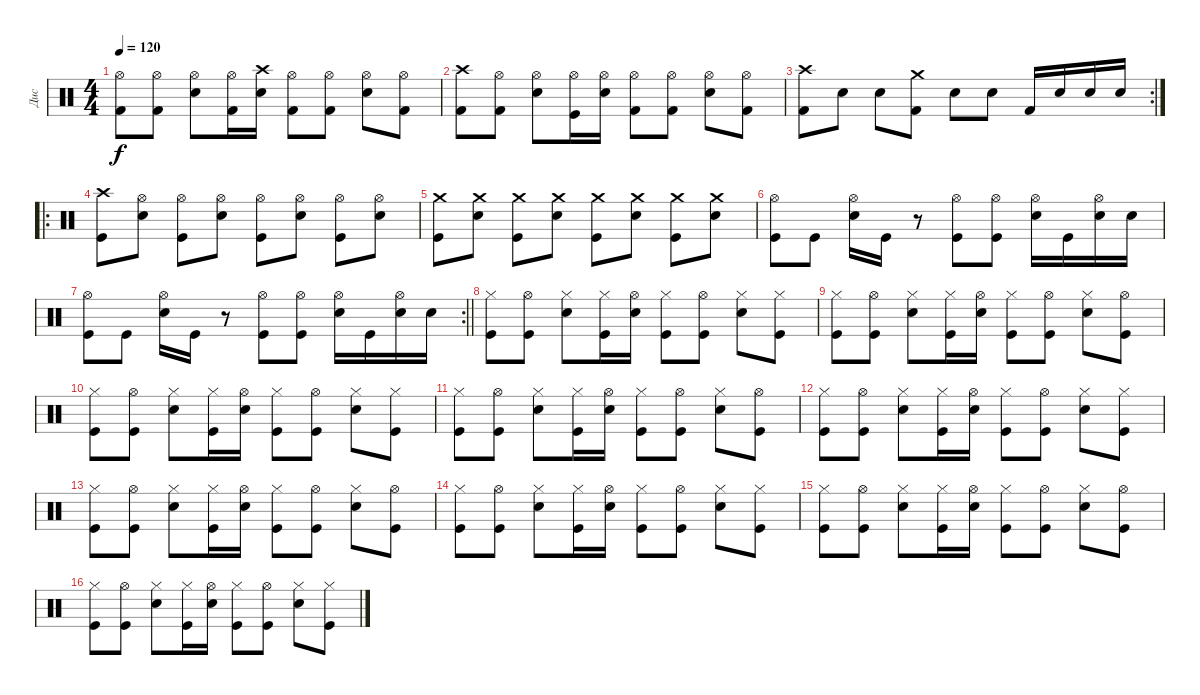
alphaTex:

\track ("Дис  " "Дис  ") {instrument percussion}
\staff {score}
\articulation defaults
\ts (4 4)
\tempo 120
\clef neutral
\ks c
("Hi-Hat (open)" "Kick (hit) 2").8{dy f} ("Hi-Hat (open)" "Kick (hit) 2").8 ("Hi-Hat (open)" "Electric Snare (hit)").8 ("Hi-Hat (open)" "Kick (hit) 2").16 ("Crash high (hit)" "Electric Snare (hit)").16 ("Hi-Hat (open)" "Kick (hit) 2").8 ("Hi-Hat (open)" "Kick (hit) 2").8 ("Hi-Hat (open)" "Electric Snare (hit)").8 ("Hi-Hat (open)" "Kick (hit) 2").8 |
("Crash high (hit)" "Kick (hit) 2").8 ("Hi-Hat (open)" "Kick (hit) 2").8 ("Hi-Hat (open)" "Electric Snare (hit)").8 ("Hi-Hat (open)" "Kick (hit)").16 ("Hi-Hat (open)" "Electric Snare (hit)").16 ("Hi-Hat (open)" "Kick (hit) 2").8 ("Hi-Hat (open)" "Kick (hit) 2").8 ("Hi-Hat (open)" "Electric Snare (hit)").8 ("Hi-Hat (open)" "Kick (hit) 2").8 |
\rc 2
("Crash high (hit)" "Kick (hit) 2").8 "Electric Snare (hit)".8 "Electric Snare (hit)".8 ("Crash medium (hit)" "Kick (hit) 2").8 "Electric Snare (hit)".8 "Electric Snare (hit)".8 "Kick (hit) 2".16 "Electric Snare (hit)".16 "Electric Snare (hit)".16 "Electric Snare (hit)".16 |
\ro
("Crash high (hit)" "Kick (hit)").8 ("Hi-Hat (open)" "Electric Snare (hit)").8 ("Hi-Hat (open)" "Kick (hit)").8 ("Hi-Hat (open)" "Electric Snare (hit)").8 ("Hi-Hat (open)" "Kick (hit)").8 ("Hi-Hat (open)" "Electric Snare (hit)").8 ("Hi-Hat (open)" "Kick (hit)").8 ("Hi-Hat (open)" "Electric Snare (hit)").8 |
("Crash medium (hit)" "Kick (hit)").8 ("Crash medium (hit)" "Electric Snare (hit)").8 ("Crash medium (hit)" "Kick (hit)").8 ("Crash medium (hit)" "Electric Snare (hit)").8 ("Crash medium (hit)" "Kick (hit)").8 ("Crash medium (hit)" "Electric Snare (hit)").8 ("Crash medium (hit)" "Kick (hit)").8 ("Crash medium (hit)" "Electric Snare (hit)").8 |
("Hi-Hat (open)" "Kick (hit)").8 "Kick (hit)".8 ("Hi-Hat (open)" "Electric Snare (hit)").16 "Kick (hit)".16 r.8 ("Hi-Hat (open)" "Kick (hit)").8 ("Hi-Hat (open)" "Kick (hit)").8 ("Hi-Hat (open)" "Electric Snare (hit)").16 "Kick (hit)".16 ("Hi-Hat (open)" "Electric Snare (hit)").16 "Electric Snare (hit)".16 |
\rc 2
\barLineRight lightlight
("Hi-Hat (open)" "Kick (hit)").8 "Kick (hit)".8 ("Hi-Hat (open)" "Electric Snare (hit)").16 "Kick (hit)".16 r.8 ("Hi-Hat (open)" "Kick (hit)").8 ("Hi-Hat (open)" "Kick (hit)").8 ("Hi-Hat (open)" "Electric Snare (hit)").16 "Kick (hit)".16 ("Hi-Hat (open)" "Electric Snare (hit)").16 "Electric Snare (hit)".16 |
("Hi-Hat (closed)" "Kick (hit)").8 ("Hi-Hat (open)" "Kick (hit)").8 ("Hi-Hat (closed)" "Electric Snare (hit)").8 ("Hi-Hat (closed)" "Kick (hit)").16 ("Hi-Hat (open)" "Electric Snare (hit)").16 ("Hi-Hat (closed)" "Kick (hit)").8 ("Hi-Hat (open)" "Kick (hit)").8 ("Hi-Hat (closed)" "Electric Snare (hit)").8 ("Hi-Hat (closed)" "Kick (hit)").8 |
("Hi-Hat (closed)" "Kick (hit)").8 ("Hi-Hat (open)" "Kick (hit)").8 ("Hi-Hat (closed)" "Electric Snare (hit)").8 ("Hi-Hat (closed)" "Kick (hit)").16 ("Hi-Hat (open)" "Electric Snare (hit)").16 ("Hi-Hat (closed)" "Kick (hit)").8 ("Hi-Hat (open)" "Kick (hit)").8 ("Hi-Hat (closed)" "Electric Snare (hit)").8 ("Hi-Hat (open)" "Kick (hit)").8 |
("Hi-Hat (closed)" "Kick (hit)").8 ("Hi-Hat (open)" "Kick (hit)").8 ("Hi-Hat (closed)" "Electric Snare (hit)").8 ("Hi-Hat (closed)" "Kick (hit)").16 ("Hi-Hat (open)" "Electric Snare (hit)").16 ("Hi-Hat (closed)" "Kick (hit)").8 ("Hi-Hat (open)" "Kick (hit)").8 ("Hi-Hat (closed)" "Electric Snare (hit)").8 ("Hi-Hat (closed)" "Kick (hit)").8 |
("Hi-Hat (closed)" "Kick (hit)").8 ("Hi-Hat (open)" "Kick (hit)").8 ("Hi-Hat (closed)" "Electric Snare (hit)").8 ("Hi-Hat (closed)" "Kick (hit)").16 ("Hi-Hat (open)" "Electric Snare (hit)").16 ("Hi-Hat (closed)" "Kick (hit)").8 ("Hi-Hat (open)" "Kick (hit)").8 ("Hi-Hat (closed)" "Electric Snare (hit)").8 ("Hi-Hat (open)" "Kick (hit)").8 |
("Hi-Hat (closed)" "Kick (hit)").8 ("Hi-Hat (open)" "Kick (hit)").8 ("Hi-Hat (closed)" "Electric Snare (hit)").8 ("Hi-Hat (closed)" "Kick (hit)").16 ("Hi-Hat (open)" "Electric Snare (hit)").16 ("Hi-Hat (closed)" "Kick (hit)").8 ("Hi-Hat (open)" "Kick (hit)").8 ("Hi-Hat (closed)" "Electric Snare (hit)").8 ("Hi-Hat (closed)" "Kick (hit)").8 |
("Hi-Hat (closed)" "Kick (hit)").8 ("Hi-Hat (open)" "Kick (hit)").8 ("Hi-Hat (closed)" "Electric Snare (hit)").8 ("Hi-Hat (closed)" "Kick (hit)").16 ("Hi-Hat (open)" "Electric Snare (hit)").16 ("Hi-Hat (closed)" "Kick (hit)").8 ("Hi-Hat (open)" "Kick (hit)").8 ("Hi-Hat (closed)" "Electric Snare (hit)").8 ("Hi-Hat (open)" "Kick (hit)").8 |
("Hi-Hat (closed)" "Kick (hit)").8 ("Hi-Hat (open)" "Kick (hit)").8 ("Hi-Hat (closed)" "Electric Snare (hit)").8 ("Hi-Hat (closed)" "Kick (hit)").16 ("Hi-Hat (open)" "Electric Snare (hit)").16 ("Hi-Hat (closed)" "Kick (hit)").8 ("Hi-Hat (open)" "Kick (hit)").8 ("Hi-Hat (closed)" "Electric Snare (hit)").8 ("Hi-Hat (closed)" "Kick (hit)").8 |
("Hi-Hat (closed)" "Kick (hit)").8 ("Hi-Hat (open)" "Kick (hit)").8 ("Hi-Hat (closed)" "Electric Snare (hit)").8 ("Hi-Hat (closed)" "Kick (hit)").16 ("Hi-Hat (open)" "Electric Snare (hit)").16 ("Hi-Hat (closed)" "Kick (hit)").8 ("Hi-Hat (open)" "Kick (hit)").8 ("Hi-Hat (closed)" "Electric Snare (hit)").8 ("Hi-Hat (open)" "Kick (hit)").8 |
("Hi-Hat (closed)" "Kick (hit)").8 ("Hi-Hat (open)" "Kick (hit)").8 ("Hi-Hat (closed)" "Electric Snare (hit)").8 ("Hi-Hat (closed)" "Kick (hit)").16 ("Hi-Hat (open)" "Electric Snare (hit)").16 ("Hi-Hat (closed)" "Kick (hit)").8 ("Hi-Hat (open)" "Kick (hit)").8 ("Hi-Hat (closed)" "Electric Snare (hit)").8 ("Hi-Hat (closed)" "Kick (hit)").8
